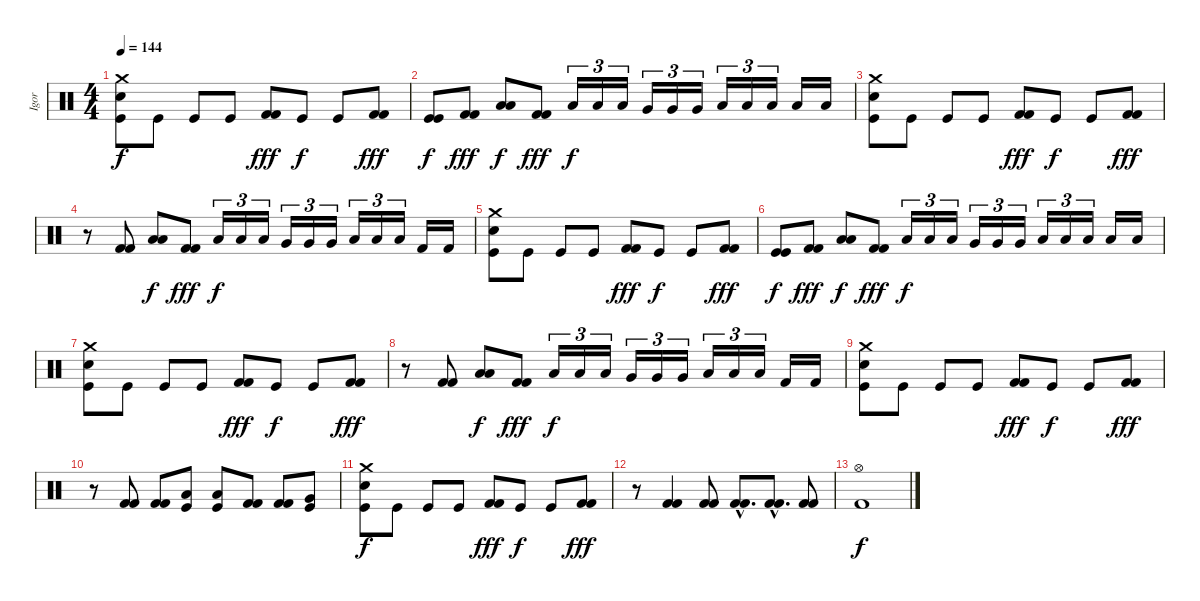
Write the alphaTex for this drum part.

\track ("Igor" "Igor") {instrument percussion}
\staff {score}
\articulation defaults
\ts (4 4)
\tempo 144
\clef neutral
\ks c
("Crash medium (hit)" "Kick (hit)" "Snare (hit) 2").8{dy f} "Kick (hit)".8 "Kick (hit)".8 "Kick (hit)".8 ("Kick (hit) 2" "Kick (hit) 2").8{dy fff} "Kick (hit)".8{dy f} "Kick (hit)".8 ("Kick (hit) 2" "Kick (hit) 2").8{dy fff} |
("Kick (hit)" "Kick (hit)").8{dy f} ("Kick (hit) 2" "Kick (hit) 2").8{dy fff} ("Low Floor Tom (hit)" "Low Floor Tom (hit)").8{dy f} ("Kick (hit) 2" "Kick (hit) 2").8{dy fff} "Low Tom (hit)".16{tu (3 2) dy f} "Low Tom (hit)".16{tu (3 2)} "Low Tom (hit)".16{tu (3 2)} "Very Low Tom (hit)".16{tu (3 2)} "Very Low Tom (hit)".16{tu (3 2)} "Very Low Tom (hit)".16{tu (3 2)} "Low Floor Tom (hit)".16{tu (3 2)} "Low Floor Tom (hit)".16{tu (3 2)} "Low Floor Tom (hit)".16{tu (3 2)} "Low Floor Tom (hit)".16 "Low Floor Tom (hit)".16 |
("Crash medium (hit)" "Kick (hit)" "Snare (hit) 2").8 "Kick (hit)".8 "Kick (hit)".8 "Kick (hit)".8 ("Kick (hit) 2" "Kick (hit) 2").8{dy fff} "Kick (hit)".8{dy f} "Kick (hit)".8 ("Kick (hit) 2" "Kick (hit) 2").8{dy fff} |
r.8 ("Kick (hit) 2" "Kick (hit) 2").8 ("Low Floor Tom (hit)" "Low Floor Tom (hit)").8{dy f} ("Kick (hit) 2" "Kick (hit) 2").8{dy fff} "Low Tom (hit)".16{tu (3 2) dy f} "Low Tom (hit)".16{tu (3 2)} "Low Tom (hit)".16{tu (3 2)} "Very Low Tom (hit)".16{tu (3 2)} "Very Low Tom (hit)".16{tu (3 2)} "Very Low Tom (hit)".16{tu (3 2)} "Low Floor Tom (hit)".16{tu (3 2)} "Low Floor Tom (hit)".16{tu (3 2)} "Low Floor Tom (hit)".16{tu (3 2)} "Kick (hit) 2".16 "Kick (hit) 2".16 |
("Crash medium (hit)" "Kick (hit)" "Snare (hit) 2").8 "Kick (hit)".8 "Kick (hit)".8 "Kick (hit)".8 ("Kick (hit) 2" "Kick (hit) 2").8{dy fff} "Kick (hit)".8{dy f} "Kick (hit)".8 ("Kick (hit) 2" "Kick (hit) 2").8{dy fff} |
("Kick (hit)" "Kick (hit)").8{dy f} ("Kick (hit) 2" "Kick (hit) 2").8{dy fff} ("Low Floor Tom (hit)" "Low Floor Tom (hit)").8{dy f} ("Kick (hit) 2" "Kick (hit) 2").8{dy fff} "Low Tom (hit)".16{tu (3 2) dy f} "Low Tom (hit)".16{tu (3 2)} "Low Tom (hit)".16{tu (3 2)} "Very Low Tom (hit)".16{tu (3 2)} "Very Low Tom (hit)".16{tu (3 2)} "Very Low Tom (hit)".16{tu (3 2)} "Low Floor Tom (hit)".16{tu (3 2)} "Low Floor Tom (hit)".16{tu (3 2)} "Low Floor Tom (hit)".16{tu (3 2)} "Low Floor Tom (hit)".16 "Low Floor Tom (hit)".16 |
("Crash medium (hit)" "Kick (hit)" "Snare (hit) 2").8 "Kick (hit)".8 "Kick (hit)".8 "Kick (hit)".8 ("Kick (hit) 2" "Kick (hit) 2").8{dy fff} "Kick (hit)".8{dy f} "Kick (hit)".8 ("Kick (hit) 2" "Kick (hit) 2").8{dy fff} |
r.8 ("Kick (hit) 2" "Kick (hit) 2").8 ("Low Floor Tom (hit)" "Low Floor Tom (hit)").8{dy f} ("Kick (hit) 2" "Kick (hit) 2").8{dy fff} "Low Tom (hit)".16{tu (3 2) dy f} "Low Tom (hit)".16{tu (3 2)} "Low Tom (hit)".16{tu (3 2)} "Very Low Tom (hit)".16{tu (3 2)} "Very Low Tom (hit)".16{tu (3 2)} "Very Low Tom (hit)".16{tu (3 2)} "Low Floor Tom (hit)".16{tu (3 2)} "Low Floor Tom (hit)".16{tu (3 2)} "Low Floor Tom (hit)".16{tu (3 2)} "Kick (hit) 2".16 "Kick (hit) 2".16 |
("Crash medium (hit)" "Kick (hit)" "Snare (hit) 2").8 "Kick (hit)".8 "Kick (hit)".8 "Kick (hit)".8 ("Kick (hit) 2" "Kick (hit) 2").8{dy fff} "Kick (hit)".8{dy f} "Kick (hit)".8 ("Kick (hit) 2" "Kick (hit) 2").8{dy fff} |
r.8 ("Kick (hit) 2" "Kick (hit) 2").8 ("Kick (hit) 2" "Kick (hit) 2").8 ("Low Tom (hit)" "Kick (hit)").8 ("Low Tom (hit)" "Kick (hit)").8 ("Kick (hit) 2" "Kick (hit) 2").8 ("Kick (hit) 2" "Kick (hit) 2").8 ("Very Low Tom (hit)" "Kick (hit)").8 |
("Crash medium (hit)" "Kick (hit)" "Snare (hit) 2").8{dy f} "Kick (hit)".8 "Kick (hit)".8 "Kick (hit)".8 ("Kick (hit) 2" "Kick (hit) 2").8{dy fff} "Kick (hit)".8{dy f} "Kick (hit)".8 ("Kick (hit) 2" "Kick (hit) 2").8{dy fff} |
r.8 ("Kick (hit) 2" "Kick (hit) 2").4 ("Kick (hit) 2" "Kick (hit) 2").8 ("Kick (hit) 2"{hac} "Kick (hit) 2"{hac}).8{d} ("Kick (hit) 2"{hac} "Kick (hit) 2"{hac}).8{d} ("Kick (hit) 2" "Kick (hit) 2").8 |
("Hi-Hat (open)" "Kick (hit) 2").1{dy f}
